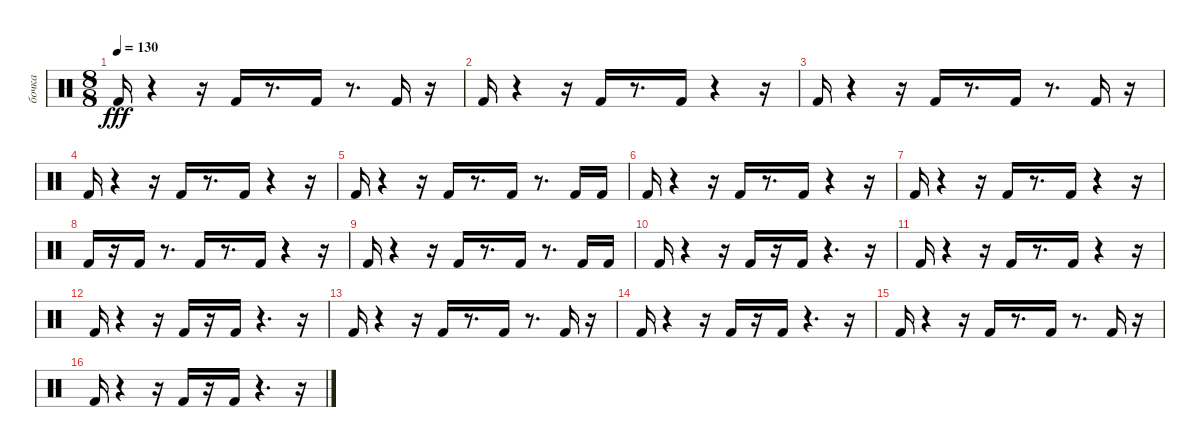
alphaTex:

\track ("бочка" "бочка") {instrument percussion}
\staff {score}
\articulation defaults
\ts (8 8)
\tempo 130
\clef neutral
\ks c "Kick (hit) 2".16{dy fff}
r.4 r.16 "Kick (hit) 2".16 r.8{d} "Kick (hit) 2".16 r.8{d} "Kick (hit) 2".16 r.16 |
"Kick (hit) 2".16 r.4 r.16 "Kick (hit) 2".16 r.8{d} "Kick (hit) 2".16 r.4 r.16 |
"Kick (hit) 2".16 r.4 r.16 "Kick (hit) 2".16 r.8{d} "Kick (hit) 2".16 r.8{d} "Kick (hit) 2".16 r.16 |
"Kick (hit) 2".16 r.4 r.16 "Kick (hit) 2".16 r.8{d} "Kick (hit) 2".16 r.4 r.16 |
"Kick (hit) 2".16 r.4 r.16 "Kick (hit) 2".16 r.8{d} "Kick (hit) 2".16 r.8{d} "Kick (hit) 2".16 "Kick (hit) 2".16 |
"Kick (hit) 2".16 r.4 r.16 "Kick (hit) 2".16 r.8{d} "Kick (hit) 2".16 r.4 r.16 |
"Kick (hit) 2".16 r.4 r.16 "Kick (hit) 2".16 r.8{d} "Kick (hit) 2".16 r.4 r.16 |
"Kick (hit) 2".16 r.16 "Kick (hit) 2".16 r.8{d} "Kick (hit) 2".16 r.8{d} "Kick (hit) 2".16 r.4 r.16 |
"Kick (hit) 2".16 r.4 r.16 "Kick (hit) 2".16 r.8{d} "Kick (hit) 2".16 r.8{d} "Kick (hit) 2".16 "Kick (hit) 2".16 |
"Kick (hit) 2".16 r.4 r.16 "Kick (hit) 2".16 r.16 "Kick (hit) 2".16 r.4{d} r.16 |
"Kick (hit) 2".16 r.4 r.16 "Kick (hit) 2".16 r.8{d} "Kick (hit) 2".16 r.4 r.16 |
"Kick (hit) 2".16 r.4 r.16 "Kick (hit) 2".16 r.16 "Kick (hit) 2".16 r.4{d} r.16 |
"Kick (hit) 2".16 r.4 r.16 "Kick (hit) 2".16 r.8{d} "Kick (hit) 2".16 r.8{d} "Kick (hit) 2".16 r.16 |
"Kick (hit) 2".16 r.4 r.16 "Kick (hit) 2".16 r.16 "Kick (hit) 2".16 r.4{d} r.16 |
"Kick (hit) 2".16 r.4 r.16 "Kick (hit) 2".16 r.8{d} "Kick (hit) 2".16 r.8{d} "Kick (hit) 2".16 r.16 |
"Kick (hit) 2".16 r.4 r.16 "Kick (hit) 2".16 r.16 "Kick (hit) 2".16 r.4{d} r.16
